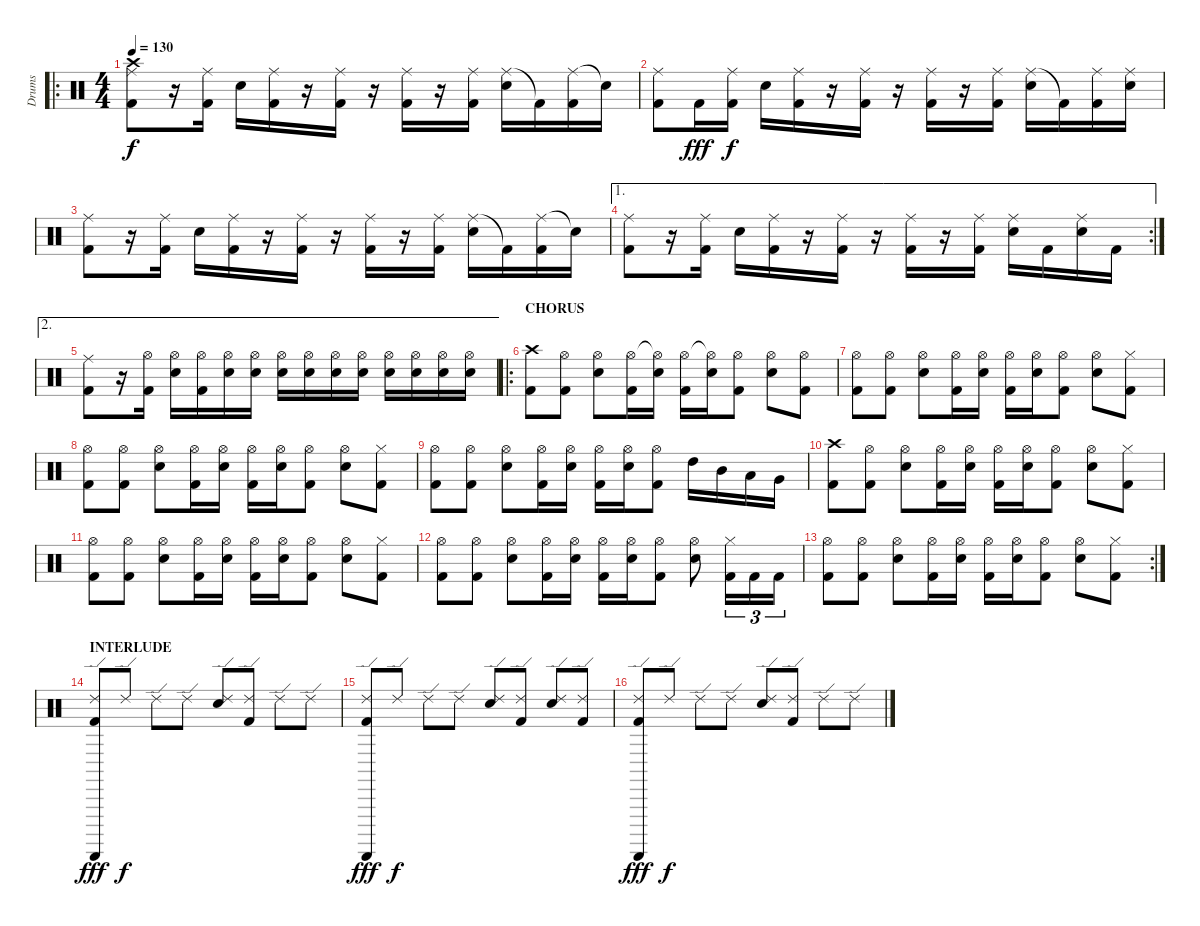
\track ("Drums" "Drums") {instrument percussion}
\staff {score}
\articulation defaults
\ro
\ts (4 4)
\tempo 130
\clef neutral
\ks c
("Ride (middle)" "Crash high (hit)" "Kick (hit) 2").8{dy f} r.16 ("Ride (middle)" "Kick (hit) 2").16 "Electric Snare (hit)".16 ("Ride (middle)" "Kick (hit) 2").16 r.16 ("Ride (middle)" "Kick (hit) 2").16 r.16 ("Ride (middle)" "Kick (hit) 2").16 r.16 ("Ride (middle)" "Kick (hit) 2").16 ("Ride (middle)" "Electric Snare (hit)").16 "Kick (hit) 2"{t}.16 ("Ride (middle)" "Kick (hit) 2").16 "Snare (hit)"{t}.16 |
("Ride (middle)" "Kick (hit) 2").8 "Kick (hit) 2".16{dy fff} ("Ride (middle)" "Kick (hit) 2").16{dy f} "Electric Snare (hit)".16 ("Ride (middle)" "Kick (hit) 2").16 r.16 ("Ride (middle)" "Kick (hit) 2").16 r.16 ("Ride (middle)" "Kick (hit) 2").16 r.16 ("Ride (middle)" "Kick (hit) 2").16 ("Ride (middle)" "Electric Snare (hit)").16 "Kick (hit) 2"{t}.16 ("Ride (middle)" "Kick (hit) 2").16 ("Ride (middle)" "Electric Snare (hit)").16 |
("Ride (middle)" "Kick (hit) 2").8 r.16 ("Ride (middle)" "Kick (hit) 2").16 "Electric Snare (hit)".16 ("Ride (middle)" "Kick (hit) 2").16 r.16 ("Ride (middle)" "Kick (hit) 2").16 r.16 ("Ride (middle)" "Kick (hit) 2").16 r.16 ("Ride (middle)" "Kick (hit) 2").16 ("Ride (middle)" "Electric Snare (hit)").16 "Kick (hit) 2"{t}.16 ("Ride (middle)" "Kick (hit) 2").16 "Snare (hit)"{t}.16 |
\ae 1
\rc 2
("Ride (middle)" "Kick (hit) 2").8 r.16 ("Ride (middle)" "Kick (hit) 2").16 "Electric Snare (hit)".16 ("Ride (middle)" "Kick (hit) 2").16 r.16 ("Ride (middle)" "Kick (hit) 2").16 r.16 ("Ride (middle)" "Kick (hit) 2").16 r.16 ("Ride (middle)" "Kick (hit) 2").16 ("Ride (middle)" "Electric Snare (hit)").16 "Kick (hit) 2".16 ("Ride (middle)" "Electric Snare (hit)").16 "Kick (hit) 2".16 |
\ae 2
("Ride (middle)" "Kick (hit) 2").8 r.16 ("Hi-Hat (open)" "Kick (hit) 2").16 ("Hi-Hat (open)" "Electric Snare (hit)").16 ("Hi-Hat (open)" "Kick (hit) 2").16 ("Hi-Hat (open)" "Electric Snare (hit)").16 ("Hi-Hat (open)" "Electric Snare (hit)").16 ("Hi-Hat (open)" "Electric Snare (hit)").16 ("Hi-Hat (open)" "Electric Snare (hit)").16 ("Hi-Hat (open)" "Electric Snare (hit)").16 ("Hi-Hat (open)" "Electric Snare (hit)").16 ("Hi-Hat (open)" "Electric Snare (hit)").16 ("Hi-Hat (open)" "Electric Snare (hit)").16 ("Hi-Hat (open)" "Electric Snare (hit)").16 ("Hi-Hat (open)" "Electric Snare (hit)").16 |
\ro
\section ("" "CHORUS")
("Crash high (hit)" "Kick (hit) 2").8 ("Hi-Hat (open)" "Kick (hit) 2").8 ("Hi-Hat (open)" "Electric Snare (hit)").8 ("Hi-Hat (open)" "Kick (hit) 2").16 ("Hi-Hat (open)"{t} "Electric Snare (hit)").16 ("Hi-Hat (open)" "Kick (hit) 2").16 ("Hi-Hat (open)"{t} "Electric Snare (hit)").16 ("Hi-Hat (open)" "Kick (hit) 2").8 ("Hi-Hat (open)" "Electric Snare (hit)").8 ("Hi-Hat (open)" "Kick (hit) 2").8 |
("Hi-Hat (open)" "Kick (hit) 2").8 ("Hi-Hat (open)" "Kick (hit) 2").8 ("Hi-Hat (open)" "Electric Snare (hit)").8 ("Hi-Hat (open)" "Kick (hit) 2").16 ("Hi-Hat (open)" "Electric Snare (hit)").16 ("Hi-Hat (open)" "Kick (hit) 2").16 ("Hi-Hat (open)" "Electric Snare (hit)").16 ("Hi-Hat (open)" "Kick (hit) 2").8 ("Hi-Hat (open)" "Electric Snare (hit)").8 ("Hi-Hat (closed)" "Kick (hit) 2").8 |
("Hi-Hat (open)" "Kick (hit) 2").8 ("Hi-Hat (open)" "Kick (hit) 2").8 ("Hi-Hat (open)" "Electric Snare (hit)").8 ("Hi-Hat (open)" "Kick (hit) 2").16 ("Hi-Hat (open)" "Electric Snare (hit)").16 ("Hi-Hat (open)" "Kick (hit) 2").16 ("Hi-Hat (open)" "Electric Snare (hit)").16 ("Hi-Hat (open)" "Kick (hit) 2").8 ("Hi-Hat (open)" "Electric Snare (hit)").8 ("Hi-Hat (closed)" "Kick (hit) 2").8 |
("Hi-Hat (open)" "Kick (hit) 2").8 ("Hi-Hat (open)" "Kick (hit) 2").8 ("Hi-Hat (open)" "Electric Snare (hit)").8 ("Hi-Hat (open)" "Kick (hit) 2").16 ("Hi-Hat (open)" "Electric Snare (hit)").16 ("Hi-Hat (open)" "Kick (hit) 2").16 ("Hi-Hat (open)" "Electric Snare (hit)").16 ("Hi-Hat (open)" "Kick (hit) 2").8 "High Tom (hit)".16 "Mid Tom (hit)".16 "Low Tom (hit)".16 "Very Low Tom (hit)".16 |
("Crash high (hit)" "Kick (hit) 2").8 ("Hi-Hat (open)" "Kick (hit) 2").8 ("Hi-Hat (open)" "Electric Snare (hit)").8 ("Hi-Hat (open)" "Kick (hit) 2").16 ("Hi-Hat (open)" "Electric Snare (hit)").16 ("Hi-Hat (open)" "Kick (hit) 2").16 ("Hi-Hat (open)" "Electric Snare (hit)").16 ("Hi-Hat (open)" "Kick (hit) 2").8 ("Hi-Hat (open)" "Electric Snare (hit)").8 ("Hi-Hat (closed)" "Kick (hit) 2").8 |
("Hi-Hat (open)" "Kick (hit) 2").8 ("Hi-Hat (open)" "Kick (hit) 2").8 ("Hi-Hat (open)" "Electric Snare (hit)").8 ("Hi-Hat (open)" "Kick (hit) 2").16 ("Hi-Hat (open)" "Electric Snare (hit)").16 ("Hi-Hat (open)" "Kick (hit) 2").16 ("Hi-Hat (open)" "Electric Snare (hit)").16 ("Hi-Hat (open)" "Kick (hit) 2").8 ("Hi-Hat (open)" "Electric Snare (hit)").8 ("Hi-Hat (closed)" "Kick (hit) 2").8 |
("Hi-Hat (open)" "Kick (hit) 2").8 ("Hi-Hat (open)" "Kick (hit) 2").8 ("Hi-Hat (open)" "Electric Snare (hit)").8 ("Hi-Hat (open)" "Kick (hit) 2").16 ("Hi-Hat (open)" "Electric Snare (hit)").16 ("Hi-Hat (open)" "Kick (hit) 2").16 ("Hi-Hat (open)" "Electric Snare (hit)").16 ("Hi-Hat (open)" "Kick (hit) 2").8 ("Hi-Hat (open)" "Electric Snare (hit)").8 ("Hi-Hat (closed)" "Kick (hit) 2").16{tu (3 2)} "Kick (hit) 2".16{tu (3 2)} "Kick (hit) 2".16{tu (3 2)} |
\rc 2
("Hi-Hat (open)" "Kick (hit) 2").8 ("Hi-Hat (open)" "Kick (hit) 2").8 ("Hi-Hat (open)" "Electric Snare (hit)").8 ("Hi-Hat (open)" "Kick (hit) 2").16 ("Hi-Hat (open)" "Electric Snare (hit)").16 ("Hi-Hat (open)" "Kick (hit) 2").16 ("Hi-Hat (open)" "Electric Snare (hit)").16 ("Hi-Hat (open)" "Kick (hit) 2").8 ("Hi-Hat (open)" "Electric Snare (hit)").8 ("Hi-Hat (closed)" "Kick (hit) 2").8 |
\section ("" "INTERLUDE")
("Guiro (scrap-return)" "Kick (hit) 2" "Ride (edge) 2").8{dy fff} "Ride (edge) 2".8{dy f} "Ride (edge) 2".8 "Ride (edge) 2".8 ("Electric Snare (hit)" "Ride (edge) 2").8 ("Kick (hit) 2" "Ride (edge) 2").8 "Ride (edge) 2".8 "Ride (edge) 2".8 |
("Guiro (scrap-return)" "Kick (hit) 2" "Ride (edge) 2").8{dy fff} "Ride (edge) 2".8{dy f} "Ride (edge) 2".8 "Ride (edge) 2".8 ("Electric Snare (hit)" "Ride (edge) 2").8 ("Kick (hit) 2" "Ride (edge) 2").8 ("Electric Snare (hit)" "Ride (edge) 2").8 ("Kick (hit) 2" "Ride (edge) 2").8 |
("Guiro (scrap-return)" "Kick (hit) 2" "Ride (edge) 2").8{dy fff} "Ride (edge) 2".8{dy f} "Ride (edge) 2".8 "Ride (edge) 2".8 ("Electric Snare (hit)" "Ride (edge) 2").8 ("Kick (hit) 2" "Ride (edge) 2").8 "Ride (edge) 2".8 "Ride (edge) 2".8
